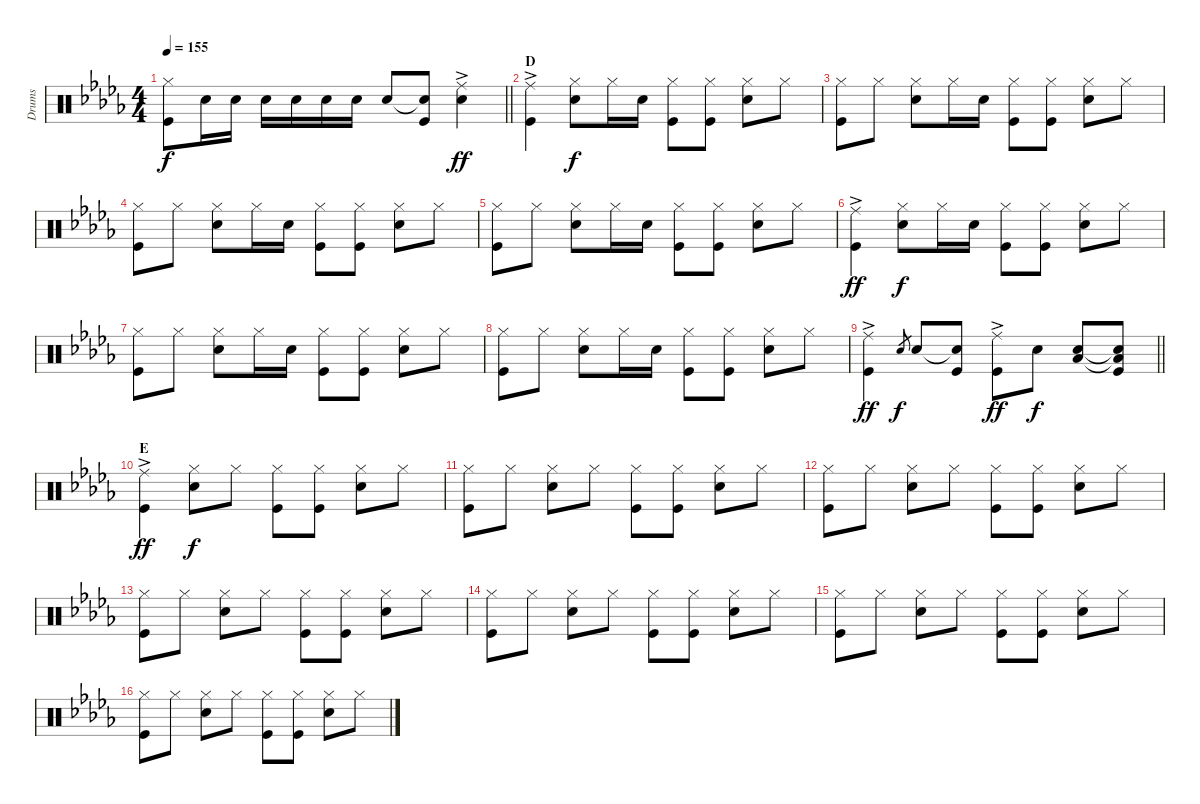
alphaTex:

\track ("Drums" "Drums") {instrument percussion}
\staff {score}
\articulation defaults
\ts (4 4)
\tempo 155
\clef neutral
\barLineRight lightlight
\ks db
("Hi-Hat (closed)" "Kick (hit)").8{dy f} "Snare (hit) 2".16 "Snare (hit) 2".16 "Snare (hit) 2".16 "Snare (hit) 2".16 "Snare (hit) 2".16 "Snare (hit) 2".16 "Snare (hit) 2".8 ("Snare (hit) 2"{t} "Kick (hit)").8 ("Ride (middle)"{ac} "Snare (hit) 2"{ac}).4{dy ff} |
\section ("" "D")
("Ride (middle)"{ac} "Kick (hit)"{ac}).4 ("Hi-Hat (closed)" "Snare (hit) 2").8{dy f} "Hi-Hat (closed)".16 "Snare (hit) 2".16 ("Hi-Hat (closed)" "Kick (hit)").8 ("Hi-Hat (closed)" "Kick (hit)").8 ("Hi-Hat (closed)" "Snare (hit) 2").8 "Hi-Hat (closed)".8 |
("Hi-Hat (closed)" "Kick (hit)").8 "Hi-Hat (closed)".8 ("Hi-Hat (closed)" "Snare (hit) 2").8 "Hi-Hat (closed)".16 "Snare (hit) 2".16 ("Hi-Hat (closed)" "Kick (hit)").8 ("Hi-Hat (closed)" "Kick (hit)").8 ("Hi-Hat (closed)" "Snare (hit) 2").8 "Hi-Hat (closed)".8 |
("Hi-Hat (closed)" "Kick (hit)").8 "Hi-Hat (closed)".8 ("Hi-Hat (closed)" "Snare (hit) 2").8 "Hi-Hat (closed)".16 "Snare (hit) 2".16 ("Hi-Hat (closed)" "Kick (hit)").8 ("Hi-Hat (closed)" "Kick (hit)").8 ("Hi-Hat (closed)" "Snare (hit) 2").8 "Hi-Hat (closed)".8 |
("Hi-Hat (closed)" "Kick (hit)").8 "Hi-Hat (closed)".8 ("Hi-Hat (closed)" "Snare (hit) 2").8 "Hi-Hat (closed)".16 "Snare (hit) 2".16 ("Hi-Hat (closed)" "Kick (hit)").8 ("Hi-Hat (closed)" "Kick (hit)").8 ("Hi-Hat (closed)" "Snare (hit) 2").8 "Hi-Hat (closed)".8 |
("Ride (middle)"{ac} "Kick (hit)"{ac}).4{dy ff} ("Hi-Hat (closed)" "Snare (hit) 2").8{dy f} "Hi-Hat (closed)".16 "Snare (hit) 2".16 ("Hi-Hat (closed)" "Kick (hit)").8 ("Hi-Hat (closed)" "Kick (hit)").8 ("Hi-Hat (closed)" "Snare (hit) 2").8 "Hi-Hat (closed)".8 |
("Hi-Hat (closed)" "Kick (hit)").8 "Hi-Hat (closed)".8 ("Hi-Hat (closed)" "Snare (hit) 2").8 "Hi-Hat (closed)".16 "Snare (hit) 2".16 ("Hi-Hat (closed)" "Kick (hit)").8 ("Hi-Hat (closed)" "Kick (hit)").8 ("Hi-Hat (closed)" "Snare (hit) 2").8 "Hi-Hat (closed)".8 |
("Hi-Hat (closed)" "Kick (hit)").8 "Hi-Hat (closed)".8 ("Hi-Hat (closed)" "Snare (hit) 2").8 "Hi-Hat (closed)".16 "Snare (hit) 2".16 ("Hi-Hat (closed)" "Kick (hit)").8 ("Hi-Hat (closed)" "Kick (hit)").8 ("Hi-Hat (closed)" "Snare (hit) 2").8 "Hi-Hat (closed)".8 |
\barLineRight lightlight
("Ride (middle)"{ac} "Kick (hit)"{ac}).4{dy ff} "Snare (hit) 2".8{gr dy f} "Snare (hit) 2".8 ("Snare (hit) 2"{t} "Kick (hit)").8 ("Ride (middle)"{ac} "Kick (hit)"{ac}).8{dy ff} "Snare (hit) 2".8{dy f} ("Low Tom (hit)" "Snare (hit) 2").8 ("Low Tom (hit)"{t} "Snare (hit) 2"{t} "Kick (hit)").8 |
\section ("" "E")
("Ride (middle)"{ac} "Kick (hit)"{ac}).4{dy ff} ("Hi-Hat (closed)" "Snare (hit) 2").8{dy f} "Hi-Hat (closed)".8 ("Hi-Hat (closed)" "Kick (hit)").8 ("Hi-Hat (closed)" "Kick (hit)").8 ("Hi-Hat (closed)" "Snare (hit) 2").8 "Hi-Hat (closed)".8 |
("Hi-Hat (closed)" "Kick (hit)").8 "Hi-Hat (closed)".8 ("Hi-Hat (closed)" "Snare (hit) 2").8 "Hi-Hat (closed)".8 ("Hi-Hat (closed)" "Kick (hit)").8 ("Hi-Hat (closed)" "Kick (hit)").8 ("Hi-Hat (closed)" "Snare (hit) 2").8 "Hi-Hat (closed)".8 |
("Hi-Hat (closed)" "Kick (hit)").8 "Hi-Hat (closed)".8 ("Hi-Hat (closed)" "Snare (hit) 2").8 "Hi-Hat (closed)".8 ("Hi-Hat (closed)" "Kick (hit)").8 ("Hi-Hat (closed)" "Kick (hit)").8 ("Hi-Hat (closed)" "Snare (hit) 2").8 "Hi-Hat (closed)".8 |
("Hi-Hat (closed)" "Kick (hit)").8 "Hi-Hat (closed)".8 ("Hi-Hat (closed)" "Snare (hit) 2").8 "Hi-Hat (closed)".8 ("Hi-Hat (closed)" "Kick (hit)").8 ("Hi-Hat (closed)" "Kick (hit)").8 ("Hi-Hat (closed)" "Snare (hit) 2").8 "Hi-Hat (closed)".8 |
("Hi-Hat (closed)" "Kick (hit)").8 "Hi-Hat (closed)".8 ("Hi-Hat (closed)" "Snare (hit) 2").8 "Hi-Hat (closed)".8 ("Hi-Hat (closed)" "Kick (hit)").8 ("Hi-Hat (closed)" "Kick (hit)").8 ("Hi-Hat (closed)" "Snare (hit) 2").8 "Hi-Hat (closed)".8 |
("Hi-Hat (closed)" "Kick (hit)").8 "Hi-Hat (closed)".8 ("Hi-Hat (closed)" "Snare (hit) 2").8 "Hi-Hat (closed)".8 ("Hi-Hat (closed)" "Kick (hit)").8 ("Hi-Hat (closed)" "Kick (hit)").8 ("Hi-Hat (closed)" "Snare (hit) 2").8 "Hi-Hat (closed)".8 |
("Hi-Hat (closed)" "Kick (hit)").8 "Hi-Hat (closed)".8 ("Hi-Hat (closed)" "Snare (hit) 2").8 "Hi-Hat (closed)".8 ("Hi-Hat (closed)" "Kick (hit)").8 ("Hi-Hat (closed)" "Kick (hit)").8 ("Hi-Hat (closed)" "Snare (hit) 2").8 "Hi-Hat (closed)".8
